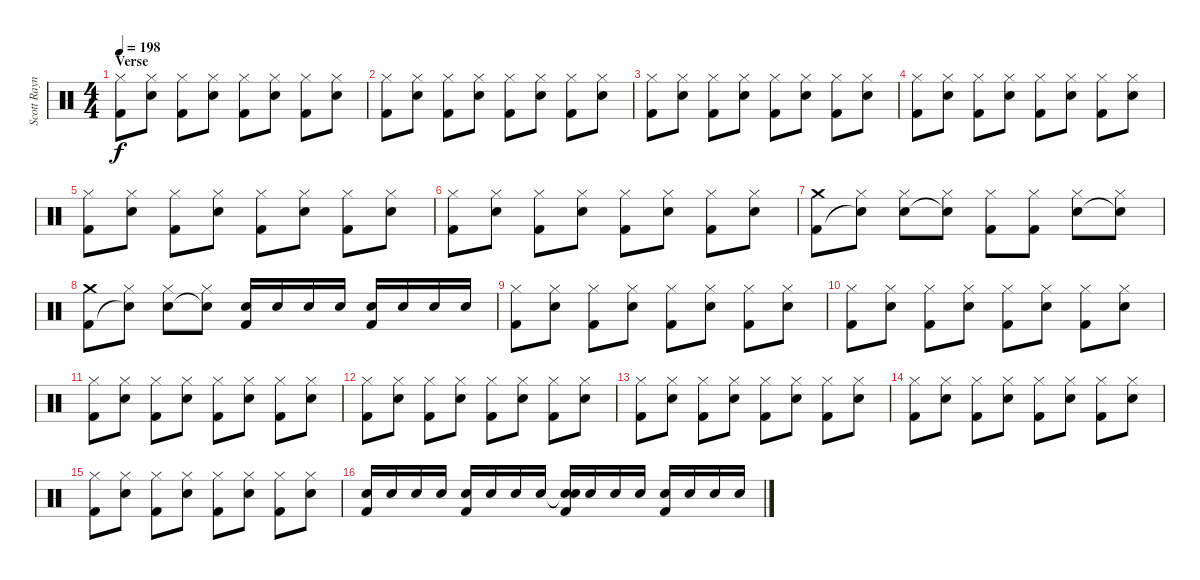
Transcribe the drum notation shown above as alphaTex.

\track ("Scott Raynor Drums" "Scott Rayn") {instrument percussion}
\staff {score}
\articulation defaults
\ts (4 4)
\section ("" "Verse")
\tempo 198
\clef neutral
\ks c
("Hi-Hat (closed)" "Kick (hit) 2").8{dy f} ("Hi-Hat (closed)" "Electric Snare (hit)").8 ("Hi-Hat (closed)" "Kick (hit) 2").8 ("Hi-Hat (closed)" "Electric Snare (hit)").8 ("Hi-Hat (closed)" "Kick (hit) 2").8 ("Hi-Hat (closed)" "Electric Snare (hit)").8 ("Hi-Hat (closed)" "Kick (hit) 2").8 ("Hi-Hat (closed)" "Electric Snare (hit)").8 |
("Hi-Hat (closed)" "Kick (hit) 2").8 ("Hi-Hat (closed)" "Electric Snare (hit)").8 ("Hi-Hat (closed)" "Kick (hit) 2").8 ("Hi-Hat (closed)" "Electric Snare (hit)").8 ("Hi-Hat (closed)" "Kick (hit) 2").8 ("Hi-Hat (closed)" "Electric Snare (hit)").8 ("Hi-Hat (closed)" "Kick (hit) 2").8 ("Hi-Hat (closed)" "Electric Snare (hit)").8 |
("Hi-Hat (closed)" "Kick (hit) 2").8 ("Hi-Hat (closed)" "Electric Snare (hit)").8 ("Hi-Hat (closed)" "Kick (hit) 2").8 ("Hi-Hat (closed)" "Electric Snare (hit)").8 ("Hi-Hat (closed)" "Kick (hit) 2").8 ("Hi-Hat (closed)" "Electric Snare (hit)").8 ("Hi-Hat (closed)" "Kick (hit) 2").8 ("Hi-Hat (closed)" "Electric Snare (hit)").8 |
("Hi-Hat (closed)" "Kick (hit) 2").8 ("Hi-Hat (closed)" "Electric Snare (hit)").8 ("Hi-Hat (closed)" "Kick (hit) 2").8 ("Hi-Hat (closed)" "Electric Snare (hit)").8 ("Hi-Hat (closed)" "Kick (hit) 2").8 ("Hi-Hat (closed)" "Electric Snare (hit)").8 ("Hi-Hat (closed)" "Kick (hit) 2").8 ("Hi-Hat (closed)" "Electric Snare (hit)").8 |
("Hi-Hat (closed)" "Kick (hit) 2").8 ("Hi-Hat (closed)" "Electric Snare (hit)").8 ("Hi-Hat (closed)" "Kick (hit) 2").8 ("Hi-Hat (closed)" "Electric Snare (hit)").8 ("Hi-Hat (closed)" "Kick (hit) 2").8 ("Hi-Hat (closed)" "Electric Snare (hit)").8 ("Hi-Hat (closed)" "Kick (hit) 2").8 ("Hi-Hat (closed)" "Electric Snare (hit)").8 |
("Hi-Hat (closed)" "Kick (hit) 2").8 ("Hi-Hat (closed)" "Electric Snare (hit)").8 ("Hi-Hat (closed)" "Kick (hit) 2").8 ("Hi-Hat (closed)" "Electric Snare (hit)").8 ("Hi-Hat (closed)" "Kick (hit) 2").8 ("Hi-Hat (closed)" "Electric Snare (hit)").8 ("Hi-Hat (closed)" "Kick (hit) 2").8 ("Hi-Hat (closed)" "Electric Snare (hit)").8 |
("Crash medium (hit)" "Kick (hit) 2").8 ("Hi-Hat (closed)" "Snare (hit)"{t}).8 ("Hi-Hat (closed)" "Electric Snare (hit)").8 ("Hi-Hat (closed)" "Snare (hit)"{t}).8 ("Hi-Hat (closed)" "Kick (hit) 2").8 ("Hi-Hat (closed)" "Kick (hit) 2").8 ("Hi-Hat (closed)" "Electric Snare (hit)").8 ("Hi-Hat (closed)" "Snare (hit)"{t}).8 |
("Crash medium (hit)" "Kick (hit) 2").8 ("Hi-Hat (closed)" "Snare (hit)"{t}).8 ("Hi-Hat (closed)" "Electric Snare (hit)").8 ("Hi-Hat (closed)" "Snare (hit)"{t}).8 ("Electric Snare (hit)" "Kick (hit) 2").16 "Electric Snare (hit)".16 "Electric Snare (hit)".16 "Electric Snare (hit)".16 ("Electric Snare (hit)" "Kick (hit) 2").16 "Electric Snare (hit)".16 "Electric Snare (hit)".16 "Electric Snare (hit)".16 |
("Hi-Hat (closed)" "Kick (hit) 2").8 ("Hi-Hat (closed)" "Electric Snare (hit)").8 ("Hi-Hat (closed)" "Kick (hit) 2").8 ("Hi-Hat (closed)" "Electric Snare (hit)").8 ("Hi-Hat (closed)" "Kick (hit) 2").8 ("Hi-Hat (closed)" "Electric Snare (hit)").8 ("Hi-Hat (closed)" "Kick (hit) 2").8 ("Hi-Hat (closed)" "Electric Snare (hit)").8 |
("Hi-Hat (closed)" "Kick (hit) 2").8 ("Hi-Hat (closed)" "Electric Snare (hit)").8 ("Hi-Hat (closed)" "Kick (hit) 2").8 ("Hi-Hat (closed)" "Electric Snare (hit)").8 ("Hi-Hat (closed)" "Kick (hit) 2").8 ("Hi-Hat (closed)" "Electric Snare (hit)").8 ("Hi-Hat (closed)" "Kick (hit) 2").8 ("Hi-Hat (closed)" "Electric Snare (hit)").8 |
("Hi-Hat (closed)" "Kick (hit) 2").8 ("Hi-Hat (closed)" "Electric Snare (hit)").8 ("Hi-Hat (closed)" "Kick (hit) 2").8 ("Hi-Hat (closed)" "Electric Snare (hit)").8 ("Hi-Hat (closed)" "Kick (hit) 2").8 ("Hi-Hat (closed)" "Electric Snare (hit)").8 ("Hi-Hat (closed)" "Kick (hit) 2").8 ("Hi-Hat (closed)" "Electric Snare (hit)").8 |
("Hi-Hat (closed)" "Kick (hit) 2").8 ("Hi-Hat (closed)" "Electric Snare (hit)").8 ("Hi-Hat (closed)" "Kick (hit) 2").8 ("Hi-Hat (closed)" "Electric Snare (hit)").8 ("Hi-Hat (closed)" "Kick (hit) 2").8 ("Hi-Hat (closed)" "Electric Snare (hit)").8 ("Hi-Hat (closed)" "Kick (hit) 2").8 ("Hi-Hat (closed)" "Electric Snare (hit)").8 |
("Hi-Hat (closed)" "Kick (hit) 2").8 ("Hi-Hat (closed)" "Electric Snare (hit)").8 ("Hi-Hat (closed)" "Kick (hit) 2").8 ("Hi-Hat (closed)" "Electric Snare (hit)").8 ("Hi-Hat (closed)" "Kick (hit) 2").8 ("Hi-Hat (closed)" "Electric Snare (hit)").8 ("Hi-Hat (closed)" "Kick (hit) 2").8 ("Hi-Hat (closed)" "Electric Snare (hit)").8 |
("Hi-Hat (closed)" "Kick (hit) 2").8 ("Hi-Hat (closed)" "Electric Snare (hit)").8 ("Hi-Hat (closed)" "Kick (hit) 2").8 ("Hi-Hat (closed)" "Electric Snare (hit)").8 ("Hi-Hat (closed)" "Kick (hit) 2").8 ("Hi-Hat (closed)" "Electric Snare (hit)").8 ("Hi-Hat (closed)" "Kick (hit) 2").8 ("Hi-Hat (closed)" "Electric Snare (hit)").8 |
("Hi-Hat (closed)" "Kick (hit) 2").8 ("Hi-Hat (closed)" "Electric Snare (hit)").8 ("Hi-Hat (closed)" "Kick (hit) 2").8 ("Hi-Hat (closed)" "Electric Snare (hit)").8 ("Hi-Hat (closed)" "Kick (hit) 2").8 ("Hi-Hat (closed)" "Electric Snare (hit)").8 ("Hi-Hat (closed)" "Kick (hit) 2").8 ("Hi-Hat (closed)" "Electric Snare (hit)").8 |
("Electric Snare (hit)" "Kick (hit) 2").16 "Electric Snare (hit)".16 "Electric Snare (hit)".16 "Electric Snare (hit)".16 ("Electric Snare (hit)" "Kick (hit) 2").16 "Electric Snare (hit)".16 "Electric Snare (hit)".16 "Electric Snare (hit)".16 ("Snare (hit)"{t} "Electric Snare (hit)" "Kick (hit) 2").16 "Electric Snare (hit)".16 "Electric Snare (hit)".16 "Electric Snare (hit)".16 ("Electric Snare (hit)" "Kick (hit) 2").16 "Electric Snare (hit)".16 "Electric Snare (hit)".16 "Electric Snare (hit)".16
